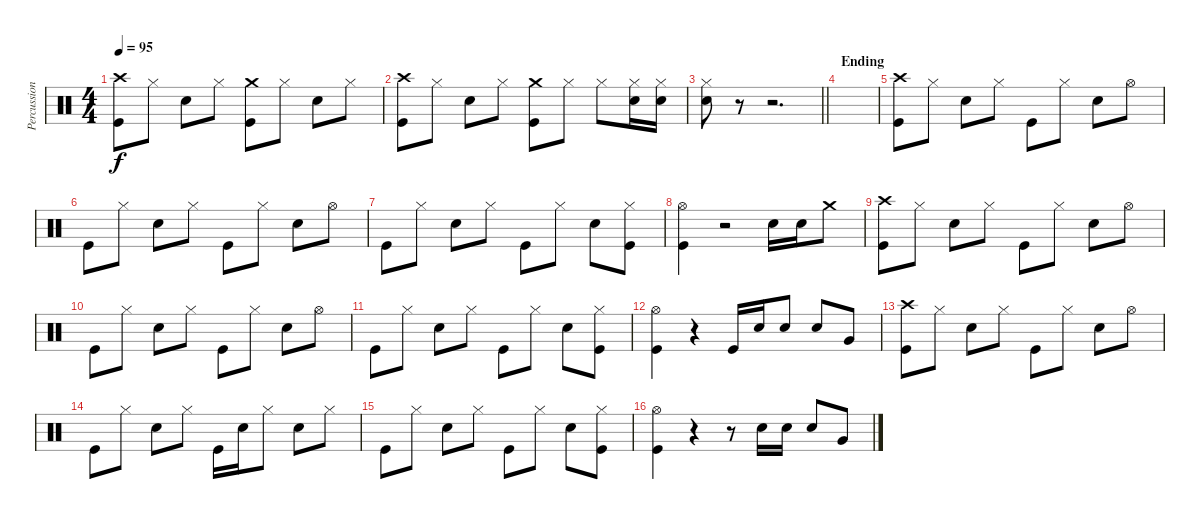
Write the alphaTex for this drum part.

\track ("Percussion" "Percussion") {instrument percussion}
\staff {score}
\articulation defaults
\ts (4 4)
\tempo 95
\clef neutral
\ks c
("Kick (hit)" "Crash high (hit)").8{dy f} "Hi-Hat (closed)".8 "Snare (hit) 2".8 "Hi-Hat (closed)".8 ("Kick (hit)" "Crash medium (hit)").8 "Hi-Hat (closed)".8 "Snare (hit) 2".8 "Hi-Hat (closed)".8 |
("Kick (hit)" "Crash high (hit)").8 "Hi-Hat (closed)".8 "Snare (hit) 2".8 "Hi-Hat (closed)".8 ("Kick (hit)" "Crash medium (hit)").8 "Hi-Hat (closed)".8 "Hi-Hat (closed)".8 ("Hi-Hat (closed)" "Snare (hit) 2").16 ("Hi-Hat (closed)" "Snare (hit) 2").16 |
\barLineRight lightlight
("Hi-Hat (closed)" "Snare (hit) 2").8 r.8 r.2{d} |
\section ("" "Ending")
|
("Kick (hit)" "Crash high (hit)").8 "Hi-Hat (closed)".8 "Snare (hit) 2".8 "Hi-Hat (closed)".8 "Kick (hit)".8 "Hi-Hat (closed)".8 "Snare (hit) 2".8 "Hi-Hat (open)".8 |
"Kick (hit)".8 "Hi-Hat (closed)".8 "Snare (hit) 2".8 "Hi-Hat (closed)".8 "Kick (hit)".8 "Hi-Hat (closed)".8 "Snare (hit) 2".8 "Hi-Hat (open)".8 |
"Kick (hit)".8 "Hi-Hat (closed)".8 "Snare (hit) 2".8 "Hi-Hat (closed)".8 "Kick (hit)".8 "Hi-Hat (closed)".8 "Snare (hit) 2".8 ("Kick (hit)" "Hi-Hat (closed)").8 |
("Kick (hit)" "Hi-Hat (open)").4 r.2 "Snare (hit) 2".16 "Snare (hit) 2".16 "Crash medium (hit)".8 |
("Kick (hit)" "Crash high (hit)").8 "Hi-Hat (closed)".8 "Snare (hit) 2".8 "Hi-Hat (closed)".8 "Kick (hit)".8 "Hi-Hat (closed)".8 "Snare (hit) 2".8 "Hi-Hat (open)".8 |
"Kick (hit)".8 "Hi-Hat (closed)".8 "Snare (hit) 2".8 "Hi-Hat (closed)".8 "Kick (hit)".8 "Hi-Hat (closed)".8 "Snare (hit) 2".8 "Hi-Hat (open)".8 |
"Kick (hit)".8 "Hi-Hat (closed)".8 "Snare (hit) 2".8 "Hi-Hat (closed)".8 "Kick (hit)".8 "Hi-Hat (closed)".8 "Snare (hit) 2".8 ("Kick (hit)" "Hi-Hat (closed)").8 |
("Kick (hit)" "Hi-Hat (open)").4 r.4 "Kick (hit)".16 "Snare (hit) 2".16 "Snare (hit) 2".8 "Snare (hit) 2".8 "Very Low Tom (hit)".8 |
("Kick (hit)" "Crash high (hit)").8 "Hi-Hat (closed)".8 "Snare (hit) 2".8 "Hi-Hat (closed)".8 "Kick (hit)".8 "Hi-Hat (closed)".8 "Snare (hit) 2".8 "Hi-Hat (open)".8 |
"Kick (hit)".8 "Hi-Hat (closed)".8 "Snare (hit) 2".8 "Hi-Hat (closed)".8 "Kick (hit)".16 "Snare (hit) 2".16 "Hi-Hat (closed)".8 "Snare (hit) 2".8 "Hi-Hat (closed)".8 |
"Kick (hit)".8 "Hi-Hat (closed)".8 "Snare (hit) 2".8 "Hi-Hat (closed)".8 "Kick (hit)".8 "Hi-Hat (closed)".8 "Snare (hit) 2".8 ("Kick (hit)" "Hi-Hat (closed)").8 |
("Kick (hit)" "Hi-Hat (open)").4 r.4 r.8 "Snare (hit) 2".16 "Snare (hit) 2".16 "Snare (hit) 2".8 "Very Low Tom (hit)".8
